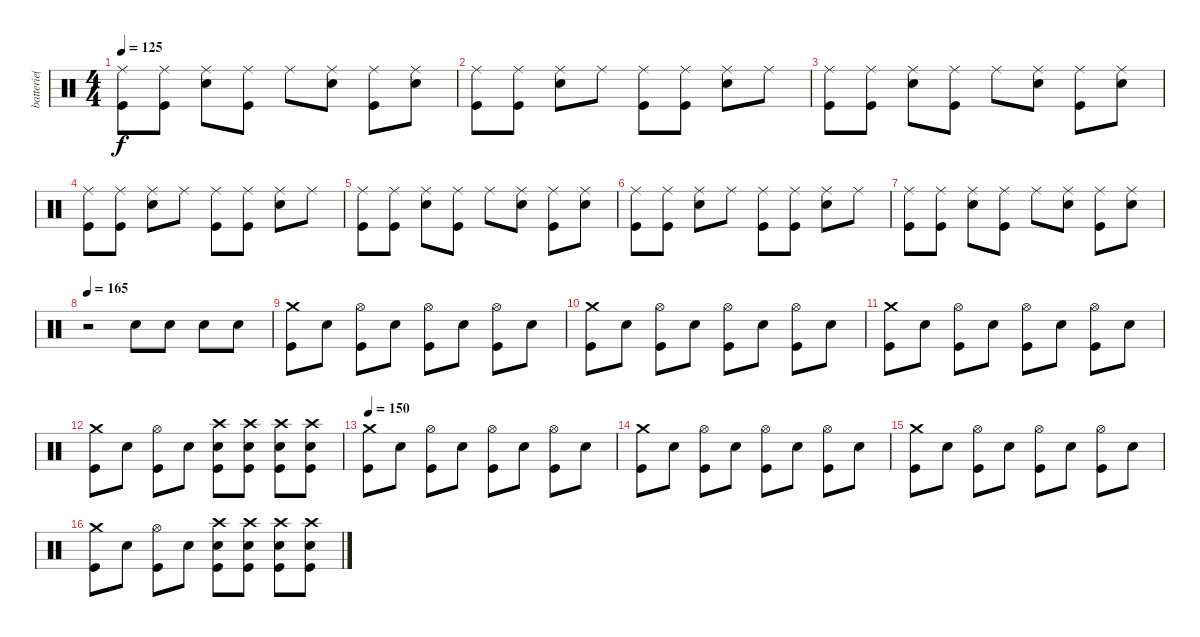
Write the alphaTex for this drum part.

\track ("batterie( Yureesh )" "batterie( ") {instrument percussion}
\staff {score}
\articulation defaults
\ts (4 4)
\tempo 125
\clef neutral
\ks c
("Ride (middle)" "Kick (hit)").8{dy f} ("Ride (middle)" "Kick (hit)").8 ("Ride (middle)" "Snare (hit) 2").8 ("Ride (middle)" "Kick (hit)").8 "Ride (middle)".8 ("Ride (middle)" "Snare (hit) 2").8 ("Ride (middle)" "Kick (hit)").8 ("Ride (middle)" "Snare (hit) 2").8 |
("Ride (middle)" "Kick (hit)").8 ("Ride (middle)" "Kick (hit)").8 ("Ride (middle)" "Snare (hit) 2").8 "Ride (middle)".8 ("Ride (middle)" "Kick (hit)").8 ("Ride (middle)" "Kick (hit)").8 ("Ride (middle)" "Snare (hit) 2").8 "Ride (middle)".8 |
("Ride (middle)" "Kick (hit)").8 ("Ride (middle)" "Kick (hit)").8 ("Ride (middle)" "Snare (hit) 2").8 ("Ride (middle)" "Kick (hit)").8 "Ride (middle)".8 ("Ride (middle)" "Snare (hit) 2").8 ("Ride (middle)" "Kick (hit)").8 ("Ride (middle)" "Snare (hit) 2").8 |
("Ride (middle)" "Kick (hit)").8 ("Ride (middle)" "Kick (hit)").8 ("Ride (middle)" "Snare (hit) 2").8 "Ride (middle)".8 ("Ride (middle)" "Kick (hit)").8 ("Ride (middle)" "Kick (hit)").8 ("Ride (middle)" "Snare (hit) 2").8 "Ride (middle)".8 |
("Ride (middle)" "Kick (hit)").8 ("Ride (middle)" "Kick (hit)").8 ("Ride (middle)" "Snare (hit) 2").8 ("Ride (middle)" "Kick (hit)").8 "Ride (middle)".8 ("Ride (middle)" "Snare (hit) 2").8 ("Ride (middle)" "Kick (hit)").8 ("Ride (middle)" "Snare (hit) 2").8 |
("Ride (middle)" "Kick (hit)").8 ("Ride (middle)" "Kick (hit)").8 ("Ride (middle)" "Snare (hit) 2").8 "Ride (middle)".8 ("Ride (middle)" "Kick (hit)").8 ("Ride (middle)" "Kick (hit)").8 ("Ride (middle)" "Snare (hit) 2").8 "Ride (middle)".8 |
("Ride (middle)" "Kick (hit)").8 ("Ride (middle)" "Kick (hit)").8 ("Ride (middle)" "Snare (hit) 2").8 ("Ride (middle)" "Kick (hit)").8 "Ride (middle)".8 ("Ride (middle)" "Snare (hit) 2").8 ("Ride (middle)" "Kick (hit)").8 ("Ride (middle)" "Snare (hit) 2").8 |
\tempo 165
r.2 "Snare (hit) 2".8 "Snare (hit) 2".8 "Snare (hit) 2".8 "Snare (hit) 2".8 |
("Crash medium (hit)" "Kick (hit)").8 "Snare (hit) 2".8 ("Hi-Hat (open)" "Kick (hit)").8 "Snare (hit) 2".8 ("Hi-Hat (open)" "Kick (hit)").8 "Snare (hit) 2".8 ("Hi-Hat (open)" "Kick (hit)").8 "Snare (hit) 2".8 |
("Crash medium (hit)" "Kick (hit)").8 "Snare (hit) 2".8 ("Hi-Hat (open)" "Kick (hit)").8 "Snare (hit) 2".8 ("Hi-Hat (open)" "Kick (hit)").8 "Snare (hit) 2".8 ("Hi-Hat (open)" "Kick (hit)").8 "Snare (hit) 2".8 |
("Crash medium (hit)" "Kick (hit)").8 "Snare (hit) 2".8 ("Hi-Hat (open)" "Kick (hit)").8 "Snare (hit) 2".8 ("Hi-Hat (open)" "Kick (hit)").8 "Snare (hit) 2".8 ("Hi-Hat (open)" "Kick (hit)").8 "Snare (hit) 2".8 |
("Crash medium (hit)" "Kick (hit)").8 "Snare (hit) 2".8 ("Hi-Hat (open)" "Kick (hit)").8 "Snare (hit) 2".8 ("Crash high (hit)" "Snare (hit) 2" "Kick (hit)").8 ("Crash high (hit)" "Snare (hit) 2" "Kick (hit)").8 ("Crash high (hit)" "Snare (hit) 2" "Kick (hit)").8 ("Crash high (hit)" "Snare (hit) 2" "Kick (hit)").8 |
\tempo 150
("Crash medium (hit)" "Kick (hit)").8 "Snare (hit) 2".8 ("Hi-Hat (open)" "Kick (hit)").8 "Snare (hit) 2".8 ("Hi-Hat (open)" "Kick (hit)").8 "Snare (hit) 2".8 ("Hi-Hat (open)" "Kick (hit)").8 "Snare (hit) 2".8 |
("Crash medium (hit)" "Kick (hit)").8 "Snare (hit) 2".8 ("Hi-Hat (open)" "Kick (hit)").8 "Snare (hit) 2".8 ("Hi-Hat (open)" "Kick (hit)").8 "Snare (hit) 2".8 ("Hi-Hat (open)" "Kick (hit)").8 "Snare (hit) 2".8 |
("Crash medium (hit)" "Kick (hit)").8 "Snare (hit) 2".8 ("Hi-Hat (open)" "Kick (hit)").8 "Snare (hit) 2".8 ("Hi-Hat (open)" "Kick (hit)").8 "Snare (hit) 2".8 ("Hi-Hat (open)" "Kick (hit)").8 "Snare (hit) 2".8 |
("Crash medium (hit)" "Kick (hit)").8 "Snare (hit) 2".8 ("Hi-Hat (open)" "Kick (hit)").8 "Snare (hit) 2".8 ("Crash high (hit)" "Snare (hit) 2" "Kick (hit)").8 ("Crash high (hit)" "Snare (hit) 2" "Kick (hit)").8 ("Crash high (hit)" "Snare (hit) 2" "Kick (hit)").8 ("Crash high (hit)" "Snare (hit) 2" "Kick (hit)").8
